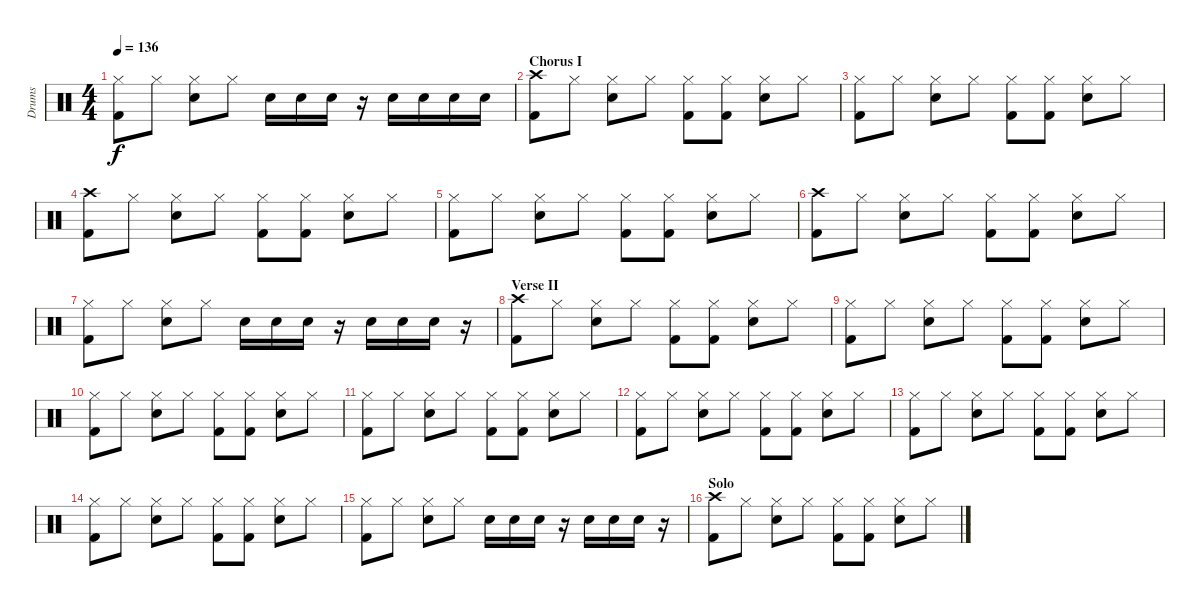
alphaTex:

\track ("Drums" "Drums") {instrument percussion}
\staff {score}
\articulation defaults
\ts (4 4)
\tempo 136
\clef neutral
\ks c
("Hi-Hat (closed)" "Kick (hit) 2").8{dy f} "Hi-Hat (closed)".8 ("Hi-Hat (closed)" "Snare (hit) 2").8 "Hi-Hat (closed)".8 "Snare (hit) 2".16 "Snare (hit) 2".16 "Snare (hit) 2".16 r.16 "Snare (hit) 2".16 "Snare (hit) 2".16 "Snare (hit) 2".16 "Snare (hit) 2".16 |
\section ("" "Chorus I")
("Crash high (hit)" "Kick (hit) 2").8 "Hi-Hat (closed)".8 ("Hi-Hat (closed)" "Snare (hit) 2").8 "Hi-Hat (closed)".8 ("Hi-Hat (closed)" "Kick (hit) 2").8 ("Hi-Hat (closed)" "Kick (hit) 2").8 ("Hi-Hat (closed)" "Snare (hit) 2").8 "Hi-Hat (closed)".8 |
("Hi-Hat (closed)" "Kick (hit) 2").8 "Hi-Hat (closed)".8 ("Hi-Hat (closed)" "Snare (hit) 2").8 "Hi-Hat (closed)".8 ("Hi-Hat (closed)" "Kick (hit) 2").8 ("Hi-Hat (closed)" "Kick (hit) 2").8 ("Hi-Hat (closed)" "Snare (hit) 2").8 "Hi-Hat (closed)".8 |
("Crash high (hit)" "Kick (hit) 2").8 "Hi-Hat (closed)".8 ("Hi-Hat (closed)" "Snare (hit) 2").8 "Hi-Hat (closed)".8 ("Hi-Hat (closed)" "Kick (hit) 2").8 ("Hi-Hat (closed)" "Kick (hit) 2").8 ("Hi-Hat (closed)" "Snare (hit) 2").8 "Hi-Hat (closed)".8 |
("Hi-Hat (closed)" "Kick (hit) 2").8 "Hi-Hat (closed)".8 ("Hi-Hat (closed)" "Snare (hit) 2").8 "Hi-Hat (closed)".8 ("Hi-Hat (closed)" "Kick (hit) 2").8 ("Hi-Hat (closed)" "Kick (hit) 2").8 ("Hi-Hat (closed)" "Snare (hit) 2").8 "Hi-Hat (closed)".8 |
("Crash high (hit)" "Kick (hit) 2").8 "Hi-Hat (closed)".8 ("Hi-Hat (closed)" "Snare (hit) 2").8 "Hi-Hat (closed)".8 ("Hi-Hat (closed)" "Kick (hit) 2").8 ("Hi-Hat (closed)" "Kick (hit) 2").8 ("Hi-Hat (closed)" "Snare (hit) 2").8 "Hi-Hat (closed)".8 |
("Hi-Hat (closed)" "Kick (hit) 2").8 "Hi-Hat (closed)".8 ("Hi-Hat (closed)" "Snare (hit) 2").8 "Hi-Hat (closed)".8 "Snare (hit) 2".16 "Snare (hit) 2".16 "Snare (hit) 2".16 r.16 "Snare (hit) 2".16 "Snare (hit) 2".16 "Snare (hit) 2".16 r.16 |
\section ("" "Verse II")
("Crash high (hit)" "Kick (hit) 2").8 "Hi-Hat (closed)".8 ("Hi-Hat (closed)" "Snare (hit) 2").8 "Hi-Hat (closed)".8 ("Hi-Hat (closed)" "Kick (hit) 2").8 ("Hi-Hat (closed)" "Kick (hit) 2").8 ("Hi-Hat (closed)" "Snare (hit) 2").8 "Hi-Hat (closed)".8 |
("Hi-Hat (closed)" "Kick (hit) 2").8 "Hi-Hat (closed)".8 ("Hi-Hat (closed)" "Snare (hit) 2").8 "Hi-Hat (closed)".8 ("Hi-Hat (closed)" "Kick (hit) 2").8 ("Hi-Hat (closed)" "Kick (hit) 2").8 ("Hi-Hat (closed)" "Snare (hit) 2").8 "Hi-Hat (closed)".8 |
("Hi-Hat (closed)" "Kick (hit) 2").8 "Hi-Hat (closed)".8 ("Hi-Hat (closed)" "Snare (hit) 2").8 "Hi-Hat (closed)".8 ("Hi-Hat (closed)" "Kick (hit) 2").8 ("Hi-Hat (closed)" "Kick (hit) 2").8 ("Hi-Hat (closed)" "Snare (hit) 2").8 "Hi-Hat (closed)".8 |
("Hi-Hat (closed)" "Kick (hit) 2").8 "Hi-Hat (closed)".8 ("Hi-Hat (closed)" "Snare (hit) 2").8 "Hi-Hat (closed)".8 ("Hi-Hat (closed)" "Kick (hit) 2").8 ("Hi-Hat (closed)" "Kick (hit) 2").8 ("Hi-Hat (closed)" "Snare (hit) 2").8 "Hi-Hat (closed)".8 |
("Hi-Hat (closed)" "Kick (hit) 2").8 "Hi-Hat (closed)".8 ("Hi-Hat (closed)" "Snare (hit) 2").8 "Hi-Hat (closed)".8 ("Hi-Hat (closed)" "Kick (hit) 2").8 ("Hi-Hat (closed)" "Kick (hit) 2").8 ("Hi-Hat (closed)" "Snare (hit) 2").8 "Hi-Hat (closed)".8 |
("Hi-Hat (closed)" "Kick (hit) 2").8 "Hi-Hat (closed)".8 ("Hi-Hat (closed)" "Snare (hit) 2").8 "Hi-Hat (closed)".8 ("Hi-Hat (closed)" "Kick (hit) 2").8 ("Hi-Hat (closed)" "Kick (hit) 2").8 ("Hi-Hat (closed)" "Snare (hit) 2").8 "Hi-Hat (closed)".8 |
("Hi-Hat (closed)" "Kick (hit) 2").8 "Hi-Hat (closed)".8 ("Hi-Hat (closed)" "Snare (hit) 2").8 "Hi-Hat (closed)".8 ("Hi-Hat (closed)" "Kick (hit) 2").8 ("Hi-Hat (closed)" "Kick (hit) 2").8 ("Hi-Hat (closed)" "Snare (hit) 2").8 "Hi-Hat (closed)".8 |
("Hi-Hat (closed)" "Kick (hit) 2").8 "Hi-Hat (closed)".8 ("Hi-Hat (closed)" "Snare (hit) 2").8 "Hi-Hat (closed)".8 "Snare (hit) 2".16 "Snare (hit) 2".16 "Snare (hit) 2".16 r.16 "Snare (hit) 2".16 "Snare (hit) 2".16 "Snare (hit) 2".16 r.16 |
\section ("" "Solo")
("Crash high (hit)" "Kick (hit) 2").8 "Hi-Hat (closed)".8 ("Hi-Hat (closed)" "Snare (hit) 2").8 "Hi-Hat (closed)".8 ("Hi-Hat (closed)" "Kick (hit) 2").8 ("Hi-Hat (closed)" "Kick (hit) 2").8 ("Hi-Hat (closed)" "Snare (hit) 2").8 "Hi-Hat (closed)".8
